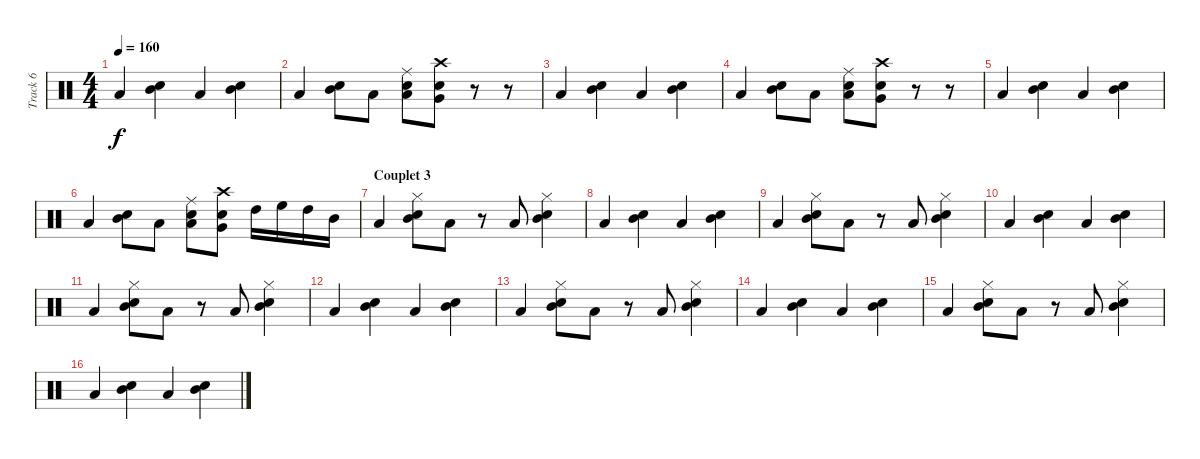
\track ("Track 6" "Track 6") {instrument percussion}
\staff {score}
\articulation defaults
\ts (4 4)
\tempo 160
\clef neutral
\ks c "Low Tom (hit)".4{dy f}
("Mid Tom (hit)" "Snare (hit) 2").4 "Low Tom (hit)".4 ("Mid Tom (hit)" "Snare (hit) 2").4 |
"Low Tom (hit)".4 ("Mid Tom (hit)" "Snare (hit) 2").8 "Low Floor Tom (hit)".8 ("Low Tom (hit)" "Ride (middle)" "Electric Snare (hit)").8 ("Very Low Tom (hit)" "Crash high (hit)" "Snare (hit) 2").8 r.8 r.8 |
"Low Tom (hit)".4 ("Mid Tom (hit)" "Snare (hit) 2").4 "Low Tom (hit)".4 ("Mid Tom (hit)" "Snare (hit) 2").4 |
"Low Tom (hit)".4 ("Mid Tom (hit)" "Snare (hit) 2").8 "Low Floor Tom (hit)".8 ("Low Tom (hit)" "Ride (middle)" "Electric Snare (hit)").8 ("Very Low Tom (hit)" "Crash high (hit)" "Snare (hit) 2").8 r.8 r.8 |
"Low Tom (hit)".4 ("Mid Tom (hit)" "Snare (hit) 2").4 "Low Tom (hit)".4 ("Mid Tom (hit)" "Snare (hit) 2").4 |
"Low Tom (hit)".4 ("Mid Tom (hit)" "Snare (hit) 2").8 "Low Floor Tom (hit)".8 ("Low Tom (hit)" "Ride (middle)" "Electric Snare (hit)").8 ("Very Low Tom (hit)" "Crash high (hit)" "Snare (hit) 2").8 "High Tom (hit)".16 "High Floor Tom (hit)".16 "High Tom (hit)".16 "Mid Tom (hit)".16 |
\section ("" "Couplet 3")
"Low Tom (hit)".4 ("Mid Tom (hit)" "Hi-Hat (closed)" "Snare (hit) 2").8 "Low Tom (hit)".8 r.8 "Low Tom (hit)".8 ("Mid Tom (hit)" "Hi-Hat (closed)" "Snare (hit) 2").4 |
"Low Tom (hit)".4 ("Mid Tom (hit)" "Snare (hit) 2").4 "Low Tom (hit)".4 ("Mid Tom (hit)" "Snare (hit) 2").4 |
"Low Tom (hit)".4 ("Mid Tom (hit)" "Hi-Hat (closed)" "Snare (hit) 2").8 "Low Tom (hit)".8 r.8 "Low Tom (hit)".8 ("Mid Tom (hit)" "Hi-Hat (closed)" "Snare (hit) 2").4 |
"Low Tom (hit)".4 ("Mid Tom (hit)" "Snare (hit) 2").4 "Low Tom (hit)".4 ("Mid Tom (hit)" "Snare (hit) 2").4 |
"Low Tom (hit)".4 ("Mid Tom (hit)" "Hi-Hat (closed)" "Snare (hit) 2").8 "Low Tom (hit)".8 r.8 "Low Tom (hit)".8 ("Mid Tom (hit)" "Hi-Hat (closed)" "Snare (hit) 2").4 |
"Low Tom (hit)".4 ("Mid Tom (hit)" "Snare (hit) 2").4 "Low Tom (hit)".4 ("Mid Tom (hit)" "Snare (hit) 2").4 |
"Low Tom (hit)".4 ("Mid Tom (hit)" "Hi-Hat (closed)" "Snare (hit) 2").8 "Low Tom (hit)".8 r.8 "Low Tom (hit)".8 ("Mid Tom (hit)" "Hi-Hat (closed)" "Snare (hit) 2").4 |
"Low Tom (hit)".4 ("Mid Tom (hit)" "Snare (hit) 2").4 "Low Tom (hit)".4 ("Mid Tom (hit)" "Snare (hit) 2").4 |
"Low Tom (hit)".4 ("Mid Tom (hit)" "Hi-Hat (closed)" "Snare (hit) 2").8 "Low Tom (hit)".8 r.8 "Low Tom (hit)".8 ("Mid Tom (hit)" "Hi-Hat (closed)" "Snare (hit) 2").4 |
"Low Tom (hit)".4 ("Mid Tom (hit)" "Snare (hit) 2").4 "Low Tom (hit)".4 ("Mid Tom (hit)" "Snare (hit) 2").4
